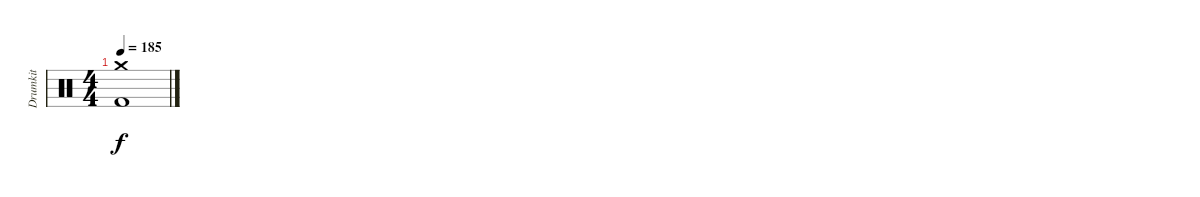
\track ("Drumkit" "Drumkit") {instrument percussion}
\staff {score}
\articulation defaults
\ts (4 4)
\tempo 185
\clef neutral
\ks c
("Crash medium (hit)" "Kick (hit) 2").1{dy f}
